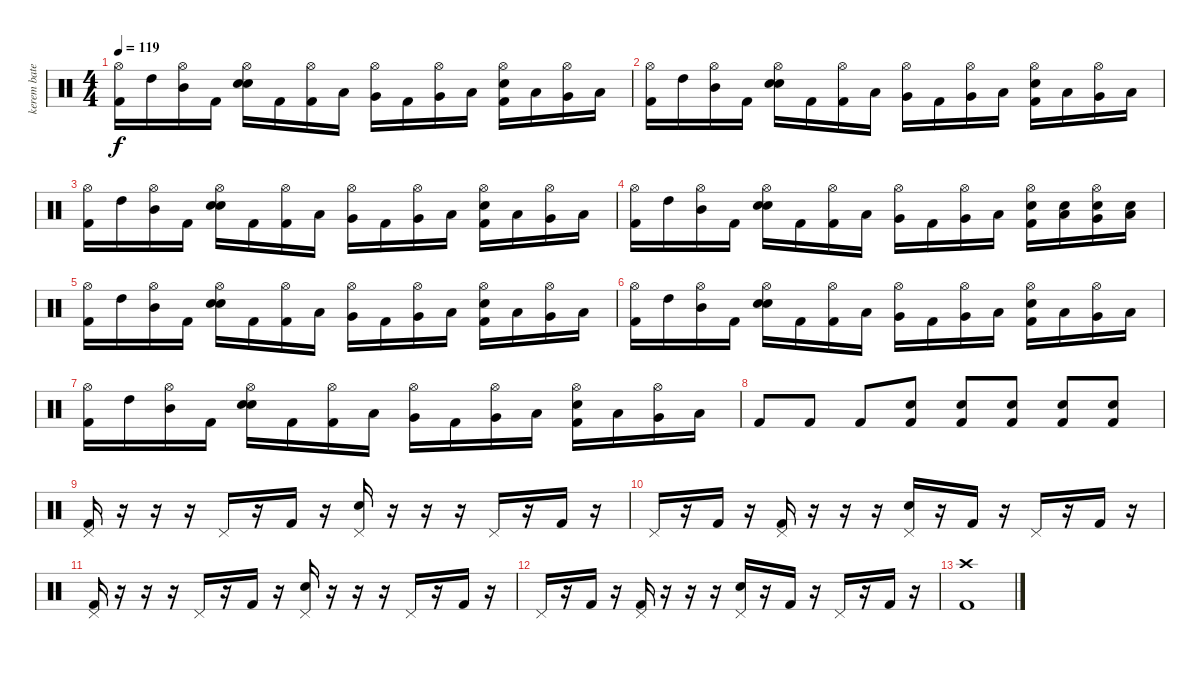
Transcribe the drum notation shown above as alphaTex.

\track ("kerem bateri" "kerem bate") {instrument percussion}
\staff {score}
\articulation defaults
\ts (4 4)
\tempo 119
\clef neutral
\ks c
("Kick (hit) 2" "Hi-Hat (open)").16{dy f} "High Tom (hit)".16 ("Mid Tom (hit)" "Hi-Hat (open)").16 "Kick (hit) 2".16 ("Snare (hit) 2" "Electric Snare (hit)" "Hi-Hat (open)").16 "Kick (hit) 2".16 ("Kick (hit) 2" "Hi-Hat (open)").16 "Low Tom (hit)".16 ("Very Low Tom (hit)" "Hi-Hat (open)").16 "Kick (hit) 2".16 ("Very Low Tom (hit)" "Hi-Hat (open)").16 "Low Floor Tom (hit)".16 ("Snare (hit) 2" "Kick (hit) 2" "Hi-Hat (open)").16 "Low Tom (hit)".16 ("Very Low Tom (hit)" "Hi-Hat (open)").16 "Low Floor Tom (hit)".16 |
("Kick (hit) 2" "Hi-Hat (open)").16 "High Tom (hit)".16 ("Mid Tom (hit)" "Hi-Hat (open)").16 "Kick (hit) 2".16 ("Snare (hit) 2" "Electric Snare (hit)" "Hi-Hat (open)").16 "Kick (hit) 2".16 ("Kick (hit) 2" "Hi-Hat (open)").16 "Low Tom (hit)".16 ("Very Low Tom (hit)" "Hi-Hat (open)").16 "Kick (hit) 2".16 ("Very Low Tom (hit)" "Hi-Hat (open)").16 "Low Floor Tom (hit)".16 ("Snare (hit) 2" "Kick (hit) 2" "Hi-Hat (open)").16 "Low Tom (hit)".16 ("Very Low Tom (hit)" "Hi-Hat (open)").16 "Low Floor Tom (hit)".16 |
("Kick (hit) 2" "Hi-Hat (open)").16 "High Tom (hit)".16 ("Mid Tom (hit)" "Hi-Hat (open)").16 "Kick (hit) 2".16 ("Snare (hit) 2" "Electric Snare (hit)" "Hi-Hat (open)").16 "Kick (hit) 2".16 ("Kick (hit) 2" "Hi-Hat (open)").16 "Low Tom (hit)".16 ("Very Low Tom (hit)" "Hi-Hat (open)").16 "Kick (hit) 2".16 ("Very Low Tom (hit)" "Hi-Hat (open)").16 "Low Floor Tom (hit)".16 ("Snare (hit) 2" "Kick (hit) 2" "Hi-Hat (open)").16 "Low Tom (hit)".16 ("Very Low Tom (hit)" "Hi-Hat (open)").16 "Low Floor Tom (hit)".16 |
("Kick (hit) 2" "Hi-Hat (open)").16 "High Tom (hit)".16 ("Mid Tom (hit)" "Hi-Hat (open)").16 "Kick (hit) 2".16 ("Snare (hit) 2" "Electric Snare (hit)" "Hi-Hat (open)").16 "Kick (hit) 2".16 ("Kick (hit) 2" "Hi-Hat (open)").16 "Low Tom (hit)".16 ("Very Low Tom (hit)" "Hi-Hat (open)").16 "Kick (hit) 2".16 ("Very Low Tom (hit)" "Hi-Hat (open)").16 "Low Floor Tom (hit)".16 ("Snare (hit) 2" "Kick (hit) 2" "Hi-Hat (open)").16 ("Snare (hit) 2" "Low Tom (hit)").16 ("Snare (hit) 2" "Very Low Tom (hit)" "Hi-Hat (open)").16 ("Snare (hit) 2" "Low Floor Tom (hit)").16 |
("Kick (hit) 2" "Hi-Hat (open)").16 "High Tom (hit)".16 ("Mid Tom (hit)" "Hi-Hat (open)").16 "Kick (hit) 2".16 ("Snare (hit) 2" "Electric Snare (hit)" "Hi-Hat (open)").16 "Kick (hit) 2".16 ("Kick (hit) 2" "Hi-Hat (open)").16 "Low Tom (hit)".16 ("Very Low Tom (hit)" "Hi-Hat (open)").16 "Kick (hit) 2".16 ("Very Low Tom (hit)" "Hi-Hat (open)").16 "Low Floor Tom (hit)".16 ("Snare (hit) 2" "Kick (hit) 2" "Hi-Hat (open)").16 "Low Tom (hit)".16 ("Very Low Tom (hit)" "Hi-Hat (open)").16 "Low Floor Tom (hit)".16 |
("Kick (hit) 2" "Hi-Hat (open)").16 "High Tom (hit)".16 ("Mid Tom (hit)" "Hi-Hat (open)").16 "Kick (hit) 2".16 ("Snare (hit) 2" "Electric Snare (hit)" "Hi-Hat (open)").16 "Kick (hit) 2".16 ("Kick (hit) 2" "Hi-Hat (open)").16 "Low Tom (hit)".16 ("Very Low Tom (hit)" "Hi-Hat (open)").16 "Kick (hit) 2".16 ("Very Low Tom (hit)" "Hi-Hat (open)").16 "Low Floor Tom (hit)".16 ("Snare (hit) 2" "Kick (hit) 2" "Hi-Hat (open)").16 "Low Tom (hit)".16 ("Very Low Tom (hit)" "Hi-Hat (open)").16 "Low Floor Tom (hit)".16 |
("Kick (hit) 2" "Hi-Hat (open)").16 "High Tom (hit)".16 ("Mid Tom (hit)" "Hi-Hat (open)").16 "Kick (hit) 2".16 ("Snare (hit) 2" "Electric Snare (hit)" "Hi-Hat (open)").16 "Kick (hit) 2".16 ("Kick (hit) 2" "Hi-Hat (open)").16 "Low Tom (hit)".16 ("Very Low Tom (hit)" "Hi-Hat (open)").16 "Kick (hit) 2".16 ("Very Low Tom (hit)" "Hi-Hat (open)").16 "Low Floor Tom (hit)".16 ("Snare (hit) 2" "Kick (hit) 2" "Hi-Hat (open)").16 "Low Tom (hit)".16 ("Very Low Tom (hit)" "Hi-Hat (open)").16 "Low Floor Tom (hit)".16 |
"Kick (hit) 2".8 "Kick (hit) 2".8 "Kick (hit) 2".8 ("Electric Snare (hit)" "Kick (hit) 2").8 ("Electric Snare (hit)" "Kick (hit) 2").8 ("Electric Snare (hit)" "Kick (hit) 2").8 ("Electric Snare (hit)" "Kick (hit) 2").8 ("Electric Snare (hit)" "Kick (hit) 2").8 |
("Pedal Hi-Hat (hit)" "Kick (hit) 2").16 r.16 r.16 r.16 "Pedal Hi-Hat (hit)".16 r.16 "Kick (hit) 2".16 r.16 ("Pedal Hi-Hat (hit)" "Electric Snare (hit)").16 r.16 r.16 r.16 "Pedal Hi-Hat (hit)".16 r.16 "Kick (hit) 2".16 r.16 |
"Pedal Hi-Hat (hit)".16 r.16 "Kick (hit) 2".16 r.16 ("Pedal Hi-Hat (hit)" "Kick (hit) 2").16 r.16 r.16 r.16 ("Pedal Hi-Hat (hit)" "Electric Snare (hit)").16 r.16 "Kick (hit) 2".16 r.16 "Pedal Hi-Hat (hit)".16 r.16 "Kick (hit) 2".16 r.16 |
("Pedal Hi-Hat (hit)" "Kick (hit) 2").16 r.16 r.16 r.16 "Pedal Hi-Hat (hit)".16 r.16 "Kick (hit) 2".16 r.16 ("Pedal Hi-Hat (hit)" "Electric Snare (hit)").16 r.16 r.16 r.16 "Pedal Hi-Hat (hit)".16 r.16 "Kick (hit) 2".16 r.16 |
"Pedal Hi-Hat (hit)".16 r.16 "Kick (hit) 2".16 r.16 ("Pedal Hi-Hat (hit)" "Kick (hit) 2").16 r.16 r.16 r.16 ("Pedal Hi-Hat (hit)" "Electric Snare (hit)").16 r.16 "Kick (hit) 2".16 r.16 "Pedal Hi-Hat (hit)".16 r.16 "Kick (hit) 2".16 r.16 |
("Crash high (hit)" "Kick (hit) 2").1
